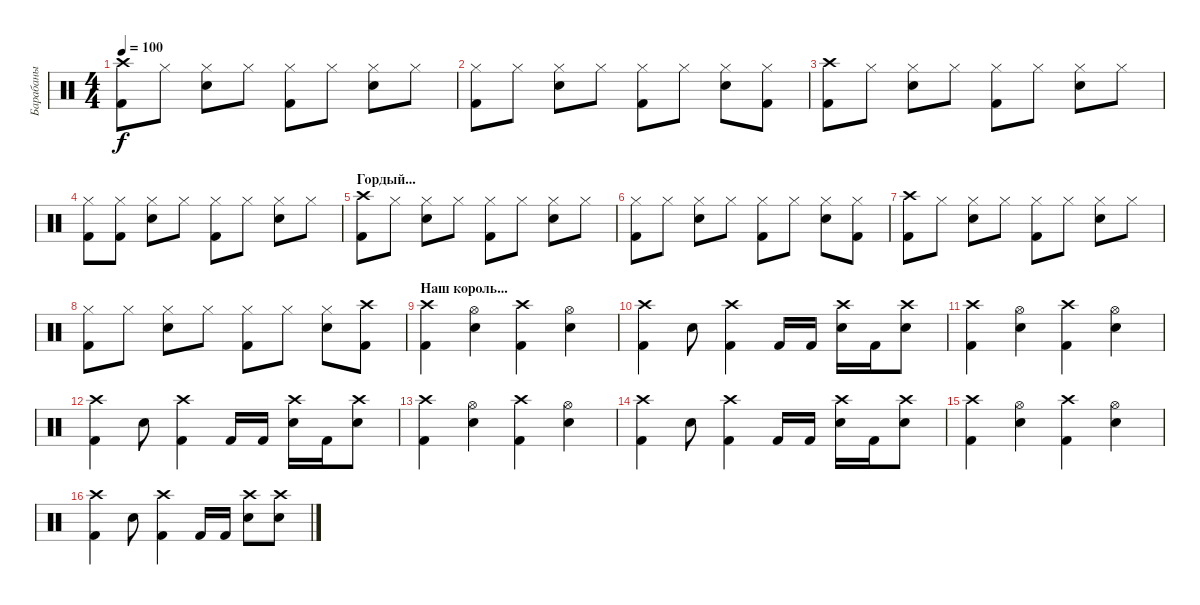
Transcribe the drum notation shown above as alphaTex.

\track ("Барабаны" "Барабаны") {instrument percussion}
\staff {score}
\articulation defaults
\ts (4 4)
\tempo 100
\clef neutral
\ks c
("Crash high (hit)" "Kick (hit) 2").8{dy f} "Hi-Hat (closed)".8 ("Hi-Hat (closed)" "Snare (hit) 2").8 "Hi-Hat (closed)".8 ("Hi-Hat (closed)" "Kick (hit) 2").8 "Hi-Hat (closed)".8 ("Hi-Hat (closed)" "Snare (hit) 2").8 "Hi-Hat (closed)".8 |
("Hi-Hat (closed)" "Kick (hit) 2").8 "Hi-Hat (closed)".8 ("Hi-Hat (closed)" "Snare (hit) 2").8 "Hi-Hat (closed)".8 ("Hi-Hat (closed)" "Kick (hit) 2").8 "Hi-Hat (closed)".8 ("Hi-Hat (closed)" "Snare (hit) 2").8 ("Hi-Hat (closed)" "Kick (hit) 2").8 |
("Crash high (hit)" "Kick (hit) 2").8 "Hi-Hat (closed)".8 ("Hi-Hat (closed)" "Snare (hit) 2").8 "Hi-Hat (closed)".8 ("Hi-Hat (closed)" "Kick (hit) 2").8 "Hi-Hat (closed)".8 ("Hi-Hat (closed)" "Snare (hit) 2").8 "Hi-Hat (closed)".8 |
("Hi-Hat (closed)" "Kick (hit) 2").8 ("Hi-Hat (closed)" "Kick (hit) 2").8 ("Hi-Hat (closed)" "Snare (hit) 2").8 "Hi-Hat (closed)".8 ("Hi-Hat (closed)" "Kick (hit) 2").8 "Hi-Hat (closed)".8 ("Hi-Hat (closed)" "Snare (hit) 2").8 "Hi-Hat (closed)".8 |
\section ("" "Гордый...")
("Crash high (hit)" "Kick (hit) 2").8 "Hi-Hat (closed)".8 ("Hi-Hat (closed)" "Snare (hit) 2").8 "Hi-Hat (closed)".8 ("Hi-Hat (closed)" "Kick (hit) 2").8 "Hi-Hat (closed)".8 ("Hi-Hat (closed)" "Snare (hit) 2").8 "Hi-Hat (closed)".8 |
("Hi-Hat (closed)" "Kick (hit) 2").8 "Hi-Hat (closed)".8 ("Hi-Hat (closed)" "Snare (hit) 2").8 "Hi-Hat (closed)".8 ("Hi-Hat (closed)" "Kick (hit) 2").8 "Hi-Hat (closed)".8 ("Hi-Hat (closed)" "Snare (hit) 2").8 ("Hi-Hat (closed)" "Kick (hit) 2").8 |
("Crash high (hit)" "Kick (hit) 2").8 "Hi-Hat (closed)".8 ("Hi-Hat (closed)" "Snare (hit) 2").8 "Hi-Hat (closed)".8 ("Hi-Hat (closed)" "Kick (hit) 2").8 "Hi-Hat (closed)".8 ("Hi-Hat (closed)" "Snare (hit) 2").8 "Hi-Hat (closed)".8 |
("Hi-Hat (closed)" "Kick (hit) 2").8 "Hi-Hat (closed)".8 ("Hi-Hat (closed)" "Snare (hit) 2").8 "Hi-Hat (closed)".8 ("Hi-Hat (closed)" "Kick (hit) 2").8 "Hi-Hat (closed)".8 ("Hi-Hat (closed)" "Snare (hit) 2").8 ("Crash high (hit)" "Kick (hit) 2").8 |
\section ("" "Наш король...")
("Crash high (hit)" "Kick (hit) 2").4 ("Hi-Hat (open)" "Snare (hit) 2").4 ("Crash high (hit)" "Kick (hit) 2").4 ("Hi-Hat (open)" "Snare (hit) 2").4 |
("Crash high (hit)" "Kick (hit) 2").4 "Snare (hit) 2".8 ("Crash high (hit)" "Kick (hit) 2").4 "Kick (hit) 2".16 "Kick (hit) 2".16 ("Crash high (hit)" "Snare (hit) 2").16 "Kick (hit) 2".16 ("Crash high (hit)" "Snare (hit) 2").8 |
("Crash high (hit)" "Kick (hit) 2").4 ("Hi-Hat (open)" "Snare (hit) 2").4 ("Crash high (hit)" "Kick (hit) 2").4 ("Hi-Hat (open)" "Snare (hit) 2").4 |
("Crash high (hit)" "Kick (hit) 2").4 "Snare (hit) 2".8 ("Crash high (hit)" "Kick (hit) 2").4 "Kick (hit) 2".16 "Kick (hit) 2".16 ("Crash high (hit)" "Snare (hit) 2").16 "Kick (hit) 2".16 ("Crash high (hit)" "Snare (hit) 2").8 |
("Crash high (hit)" "Kick (hit) 2").4 ("Hi-Hat (open)" "Snare (hit) 2").4 ("Crash high (hit)" "Kick (hit) 2").4 ("Hi-Hat (open)" "Snare (hit) 2").4 |
("Crash high (hit)" "Kick (hit) 2").4 "Snare (hit) 2".8 ("Crash high (hit)" "Kick (hit) 2").4 "Kick (hit) 2".16 "Kick (hit) 2".16 ("Crash high (hit)" "Snare (hit) 2").16 "Kick (hit) 2".16 ("Crash high (hit)" "Snare (hit) 2").8 |
("Crash high (hit)" "Kick (hit) 2").4 ("Hi-Hat (open)" "Snare (hit) 2").4 ("Crash high (hit)" "Kick (hit) 2").4 ("Hi-Hat (open)" "Snare (hit) 2").4 |
("Crash high (hit)" "Kick (hit) 2").4 "Snare (hit) 2".8 ("Crash high (hit)" "Kick (hit) 2").4 "Kick (hit) 2".16 "Kick (hit) 2".16 ("Crash high (hit)" "Snare (hit) 2").8 ("Crash high (hit)" "Snare (hit) 2").8
